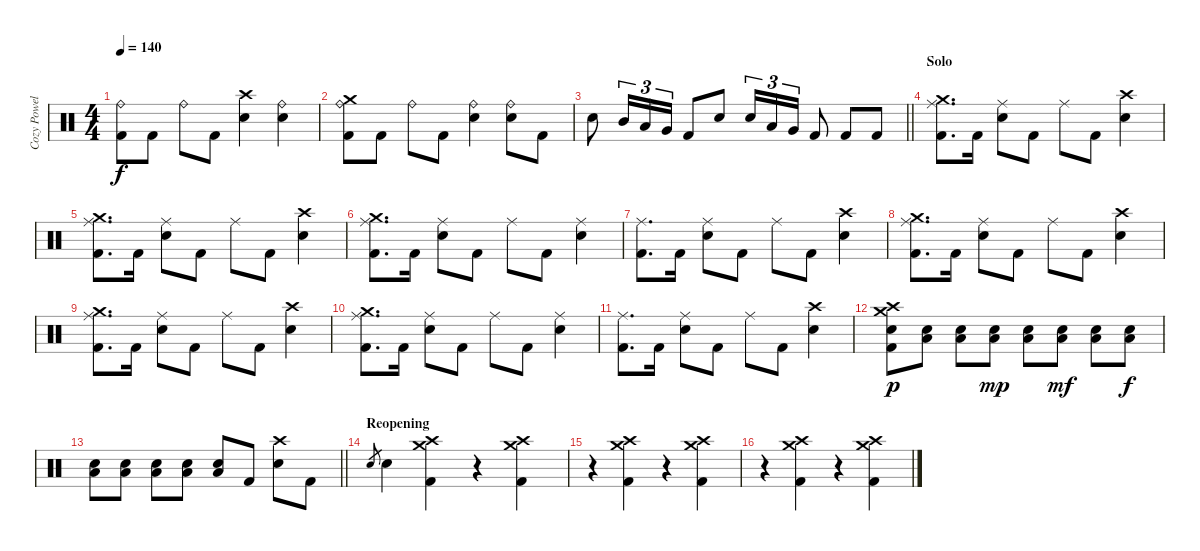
\track ("Cozy Powell" "Cozy Powel") {instrument percussion}
\staff {score}
\articulation defaults
\ts (4 4)
\tempo 140
\clef neutral
\ks c
("Ride (bell)" "Kick (hit) 2").8{dy f} "Kick (hit) 2".8 "Ride (bell)".8 "Kick (hit) 2".8 ("Crash high (hit)" "Snare (hit) 2").4 ("Ride (bell)" "Snare (hit) 2").4 |
("Crash medium (hit)" "Ride (bell)" "Kick (hit) 2").8 "Kick (hit) 2".8 "Ride (bell)".8 "Kick (hit) 2".8 ("Ride (bell)" "Snare (hit) 2").4 ("Ride (bell)" "Snare (hit) 2").8 "Kick (hit) 2".8 |
\barLineRight lightlight "Snare (hit) 2".8 "Mid Tom (hit)".16{tu (3 2)} "Low Tom (hit)".16{tu (3 2)} "Very Low Tom (hit)".16{tu (3 2)} "Kick (hit) 2".8 "Snare (hit) 2".8 "Snare (hit) 2".16{tu (3 2)} "Low Tom (hit)".16{tu (3 2)} "Very Low Tom (hit)".16{tu (3 2)} "Kick (hit) 2".8 "Kick (hit) 2".8 "Kick (hit) 2".8
|
\section ("" "Solo")
("Crash medium (hit)" "Ride (middle)" "Kick (hit) 2").8{d} "Kick (hit) 2".16 ("Ride (middle)" "Snare (hit) 2").8 "Kick (hit) 2".8 "Ride (middle)".8 "Kick (hit) 2".8 ("Crash high (hit)" "Snare (hit) 2").4 |
("Crash medium (hit)" "Ride (middle)" "Kick (hit) 2").8{d} "Kick (hit) 2".16 ("Ride (middle)" "Snare (hit) 2").8 "Kick (hit) 2".8 "Ride (middle)".8 "Kick (hit) 2".8 ("Crash high (hit)" "Snare (hit) 2").4 |
("Crash medium (hit)" "Ride (middle)" "Kick (hit) 2").8{d} "Kick (hit) 2".16 ("Ride (middle)" "Snare (hit) 2").8 "Kick (hit) 2".8 "Ride (middle)".8 "Kick (hit) 2".8 ("Ride (middle)" "Snare (hit) 2").4 |
("Ride (middle)" "Kick (hit) 2").8{d} "Kick (hit) 2".16 ("Ride (middle)" "Snare (hit) 2").8 "Kick (hit) 2".8 "Ride (middle)".8 "Kick (hit) 2".8 ("Crash high (hit)" "Snare (hit) 2").4 |
("Crash medium (hit)" "Ride (middle)" "Kick (hit) 2").8{d} "Kick (hit) 2".16 ("Ride (middle)" "Snare (hit) 2").8 "Kick (hit) 2".8 "Ride (middle)".8 "Kick (hit) 2".8 ("Crash high (hit)" "Snare (hit) 2").4 |
("Crash medium (hit)" "Ride (middle)" "Kick (hit) 2").8{d} "Kick (hit) 2".16 ("Ride (middle)" "Snare (hit) 2").8 "Kick (hit) 2".8 "Ride (middle)".8 "Kick (hit) 2".8 ("Crash high (hit)" "Snare (hit) 2").4 |
("Crash medium (hit)" "Ride (middle)" "Kick (hit) 2").8{d} "Kick (hit) 2".16 ("Ride (middle)" "Snare (hit) 2").8 "Kick (hit) 2".8 "Ride (middle)".8 "Kick (hit) 2".8 ("Ride (middle)" "Snare (hit) 2").4 |
("Ride (middle)" "Kick (hit) 2").8{d} "Kick (hit) 2".16 ("Ride (middle)" "Snare (hit) 2").8 "Kick (hit) 2".8 "Ride (middle)".8 "Kick (hit) 2".8 ("Crash high (hit)" "Snare (hit) 2").4 |
("Crash medium (hit)" "Crash high (hit)" "Snare (hit) 2" "Kick (hit) 2").8{dy p} ("Snare (hit) 2" "Low Tom (hit)").8 ("Snare (hit) 2" "Low Tom (hit)").8 ("Snare (hit) 2" "Low Tom (hit)").8{dy mp} ("Snare (hit) 2" "Low Tom (hit)").8 ("Snare (hit) 2" "Low Tom (hit)").8{dy mf} ("Snare (hit) 2" "Low Tom (hit)").8 ("Snare (hit) 2" "Low Tom (hit)").8{dy f} |
\barLineRight lightlight
("Snare (hit) 2" "Low Tom (hit)").8 ("Snare (hit) 2" "Low Tom (hit)").8 ("Snare (hit) 2" "Low Tom (hit)").8 ("Snare (hit) 2" "Low Tom (hit)").8 ("Snare (hit) 2" "Low Tom (hit)").8 "Kick (hit) 2".8 ("Crash high (hit)" "Snare (hit) 2").8 "Kick (hit) 2".8 |
\section ("" "Reopening")
"Snare (hit) 2".8{gr} "Snare (hit) 2".4 ("Crash medium (hit)" "Crash high (hit)" "Kick (hit) 2").4 r.4 ("Crash medium (hit)" "Crash high (hit)" "Kick (hit) 2").4 |
r.4 ("Crash medium (hit)" "Crash high (hit)" "Kick (hit) 2").4 r.4 ("Crash medium (hit)" "Crash high (hit)" "Kick (hit) 2").4 |
r.4 ("Crash medium (hit)" "Crash high (hit)" "Kick (hit) 2").4 r.4 ("Crash medium (hit)" "Crash high (hit)" "Kick (hit) 2").4
